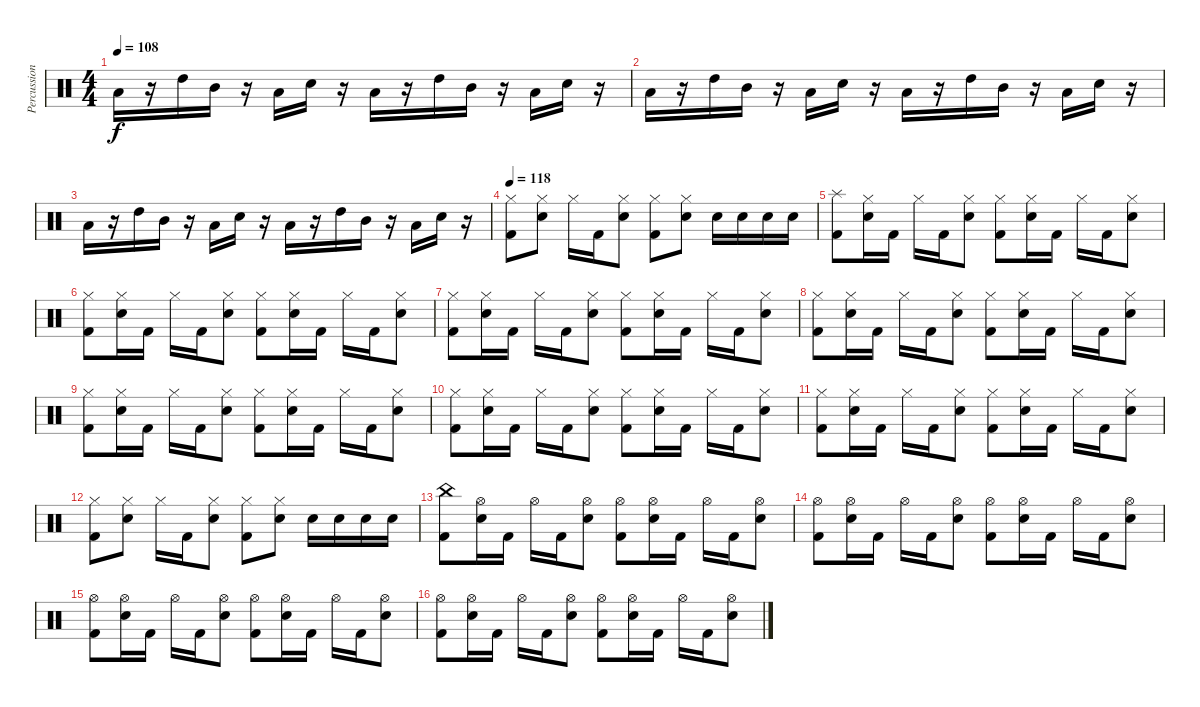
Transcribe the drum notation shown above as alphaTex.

\track ("Percussion" "Percussion") {instrument percussion}
\staff {score}
\articulation defaults
\ts (4 4)
\tempo 108
\clef neutral
\ks c "Low Tom (hit)".16{dy f}
r.16 "High Tom (hit)".16 "Mid Tom (hit)".16 r.16 "Low Tom (hit)".16 "Snare (hit) 2".16 r.16 "Low Tom (hit)".16 r.16 "High Tom (hit)".16 "Mid Tom (hit)".16 r.16 "Low Tom (hit)".16 "Snare (hit) 2".16 r.16 |
"Low Tom (hit)".16 r.16 "High Tom (hit)".16 "Mid Tom (hit)".16 r.16 "Low Tom (hit)".16 "Snare (hit) 2".16 r.16 "Low Tom (hit)".16 r.16 "High Tom (hit)".16 "Mid Tom (hit)".16 r.16 "Low Tom (hit)".16 "Snare (hit) 2".16 r.16 |
"Low Tom (hit)".16 r.16 "High Tom (hit)".16 "Mid Tom (hit)".16 r.16 "Low Tom (hit)".16 "Snare (hit) 2".16 r.16 "Low Tom (hit)".16 r.16 "High Tom (hit)".16 "Mid Tom (hit)".16 r.16 "Low Tom (hit)".16 "Snare (hit) 2".16 r.16 |
\tempo 118
("Hi-Hat (closed)" "Kick (hit) 2").8 ("Hi-Hat (closed)" "Snare (hit) 2").8 "Hi-Hat (closed)".16 "Kick (hit) 2".16 ("Hi-Hat (closed)" "Snare (hit) 2").8 ("Hi-Hat (closed)" "Kick (hit) 2").8 ("Hi-Hat (closed)" "Snare (hit) 2").8 "Snare (hit) 2".16 "Snare (hit) 2".16 "Snare (hit) 2".16 "Snare (hit) 2".16 |
("Splash (hit)" "Kick (hit) 2").8 ("Hi-Hat (closed)" "Snare (hit) 2").16 "Kick (hit) 2".16 "Hi-Hat (closed)".16 "Kick (hit) 2".16 ("Hi-Hat (closed)" "Snare (hit) 2").8 ("Hi-Hat (closed)" "Kick (hit) 2").8 ("Hi-Hat (closed)" "Snare (hit) 2").16 "Kick (hit) 2".16 "Hi-Hat (closed)".16 "Kick (hit) 2".16 ("Hi-Hat (closed)" "Snare (hit) 2").8 |
("Hi-Hat (closed)" "Kick (hit) 2").8 ("Hi-Hat (closed)" "Snare (hit) 2").16 "Kick (hit) 2".16 "Hi-Hat (closed)".16 "Kick (hit) 2".16 ("Hi-Hat (closed)" "Snare (hit) 2").8 ("Hi-Hat (closed)" "Kick (hit) 2").8 ("Hi-Hat (closed)" "Snare (hit) 2").16 "Kick (hit) 2".16 "Hi-Hat (closed)".16 "Kick (hit) 2".16 ("Hi-Hat (closed)" "Snare (hit) 2").8 |
("Hi-Hat (closed)" "Kick (hit) 2").8 ("Hi-Hat (closed)" "Snare (hit) 2").16 "Kick (hit) 2".16 "Hi-Hat (closed)".16 "Kick (hit) 2".16 ("Hi-Hat (closed)" "Snare (hit) 2").8 ("Hi-Hat (closed)" "Kick (hit) 2").8 ("Hi-Hat (closed)" "Snare (hit) 2").16 "Kick (hit) 2".16 "Hi-Hat (closed)".16 "Kick (hit) 2".16 ("Hi-Hat (closed)" "Snare (hit) 2").8 |
("Hi-Hat (closed)" "Kick (hit) 2").8 ("Hi-Hat (closed)" "Snare (hit) 2").16 "Kick (hit) 2".16 "Hi-Hat (closed)".16 "Kick (hit) 2".16 ("Hi-Hat (closed)" "Snare (hit) 2").8 ("Hi-Hat (closed)" "Kick (hit) 2").8 ("Hi-Hat (closed)" "Snare (hit) 2").16 "Kick (hit) 2".16 "Hi-Hat (closed)".16 "Kick (hit) 2".16 ("Hi-Hat (closed)" "Snare (hit) 2").8 |
("Hi-Hat (closed)" "Kick (hit) 2").8 ("Hi-Hat (closed)" "Snare (hit) 2").16 "Kick (hit) 2".16 "Hi-Hat (closed)".16 "Kick (hit) 2".16 ("Hi-Hat (closed)" "Snare (hit) 2").8 ("Hi-Hat (closed)" "Kick (hit) 2").8 ("Hi-Hat (closed)" "Snare (hit) 2").16 "Kick (hit) 2".16 "Hi-Hat (closed)".16 "Kick (hit) 2".16 ("Hi-Hat (closed)" "Snare (hit) 2").8 |
("Hi-Hat (closed)" "Kick (hit) 2").8 ("Hi-Hat (closed)" "Snare (hit) 2").16 "Kick (hit) 2".16 "Hi-Hat (closed)".16 "Kick (hit) 2".16 ("Hi-Hat (closed)" "Snare (hit) 2").8 ("Hi-Hat (closed)" "Kick (hit) 2").8 ("Hi-Hat (closed)" "Snare (hit) 2").16 "Kick (hit) 2".16 "Hi-Hat (closed)".16 "Kick (hit) 2".16 ("Hi-Hat (closed)" "Snare (hit) 2").8 |
("Hi-Hat (closed)" "Kick (hit) 2").8 ("Hi-Hat (closed)" "Snare (hit) 2").16 "Kick (hit) 2".16 "Hi-Hat (closed)".16 "Kick (hit) 2".16 ("Hi-Hat (closed)" "Snare (hit) 2").8 ("Hi-Hat (closed)" "Kick (hit) 2").8 ("Hi-Hat (closed)" "Snare (hit) 2").16 "Kick (hit) 2".16 "Hi-Hat (closed)".16 "Kick (hit) 2".16 ("Hi-Hat (closed)" "Snare (hit) 2").8 |
("Hi-Hat (closed)" "Kick (hit) 2").8 ("Hi-Hat (closed)" "Snare (hit) 2").8 "Hi-Hat (closed)".16 "Kick (hit) 2".16 ("Hi-Hat (closed)" "Snare (hit) 2").8 ("Hi-Hat (closed)" "Kick (hit) 2").8 ("Hi-Hat (closed)" "Snare (hit) 2").8 "Snare (hit) 2".16 "Snare (hit) 2".16 "Snare (hit) 2".16 "Snare (hit) 2".16 |
("China (hit)" "Kick (hit) 2").8 ("Hi-Hat (open)" "Snare (hit) 2").16 "Kick (hit) 2".16 "Hi-Hat (open)".16 "Kick (hit) 2".16 ("Hi-Hat (open)" "Snare (hit) 2").8 ("Hi-Hat (open)" "Kick (hit) 2").8 ("Hi-Hat (open)" "Snare (hit) 2").16 "Kick (hit) 2".16 "Hi-Hat (open)".16 "Kick (hit) 2".16 ("Hi-Hat (open)" "Snare (hit) 2").8 |
("Hi-Hat (open)" "Kick (hit) 2").8 ("Hi-Hat (open)" "Snare (hit) 2").16 "Kick (hit) 2".16 "Hi-Hat (open)".16 "Kick (hit) 2".16 ("Hi-Hat (open)" "Snare (hit) 2").8 ("Hi-Hat (open)" "Kick (hit) 2").8 ("Hi-Hat (open)" "Snare (hit) 2").16 "Kick (hit) 2".16 "Hi-Hat (open)".16 "Kick (hit) 2".16 ("Hi-Hat (open)" "Snare (hit) 2").8 |
("Hi-Hat (open)" "Kick (hit) 2").8 ("Hi-Hat (open)" "Snare (hit) 2").16 "Kick (hit) 2".16 "Hi-Hat (open)".16 "Kick (hit) 2".16 ("Hi-Hat (open)" "Snare (hit) 2").8 ("Hi-Hat (open)" "Kick (hit) 2").8 ("Hi-Hat (open)" "Snare (hit) 2").16 "Kick (hit) 2".16 "Hi-Hat (open)".16 "Kick (hit) 2".16 ("Hi-Hat (open)" "Snare (hit) 2").8 |
("Hi-Hat (open)" "Kick (hit) 2").8 ("Hi-Hat (open)" "Snare (hit) 2").16 "Kick (hit) 2".16 "Hi-Hat (open)".16 "Kick (hit) 2".16 ("Hi-Hat (open)" "Snare (hit) 2").8 ("Hi-Hat (open)" "Kick (hit) 2").8 ("Hi-Hat (open)" "Snare (hit) 2").16 "Kick (hit) 2".16 "Hi-Hat (open)".16 "Kick (hit) 2".16 ("Hi-Hat (open)" "Snare (hit) 2").8
